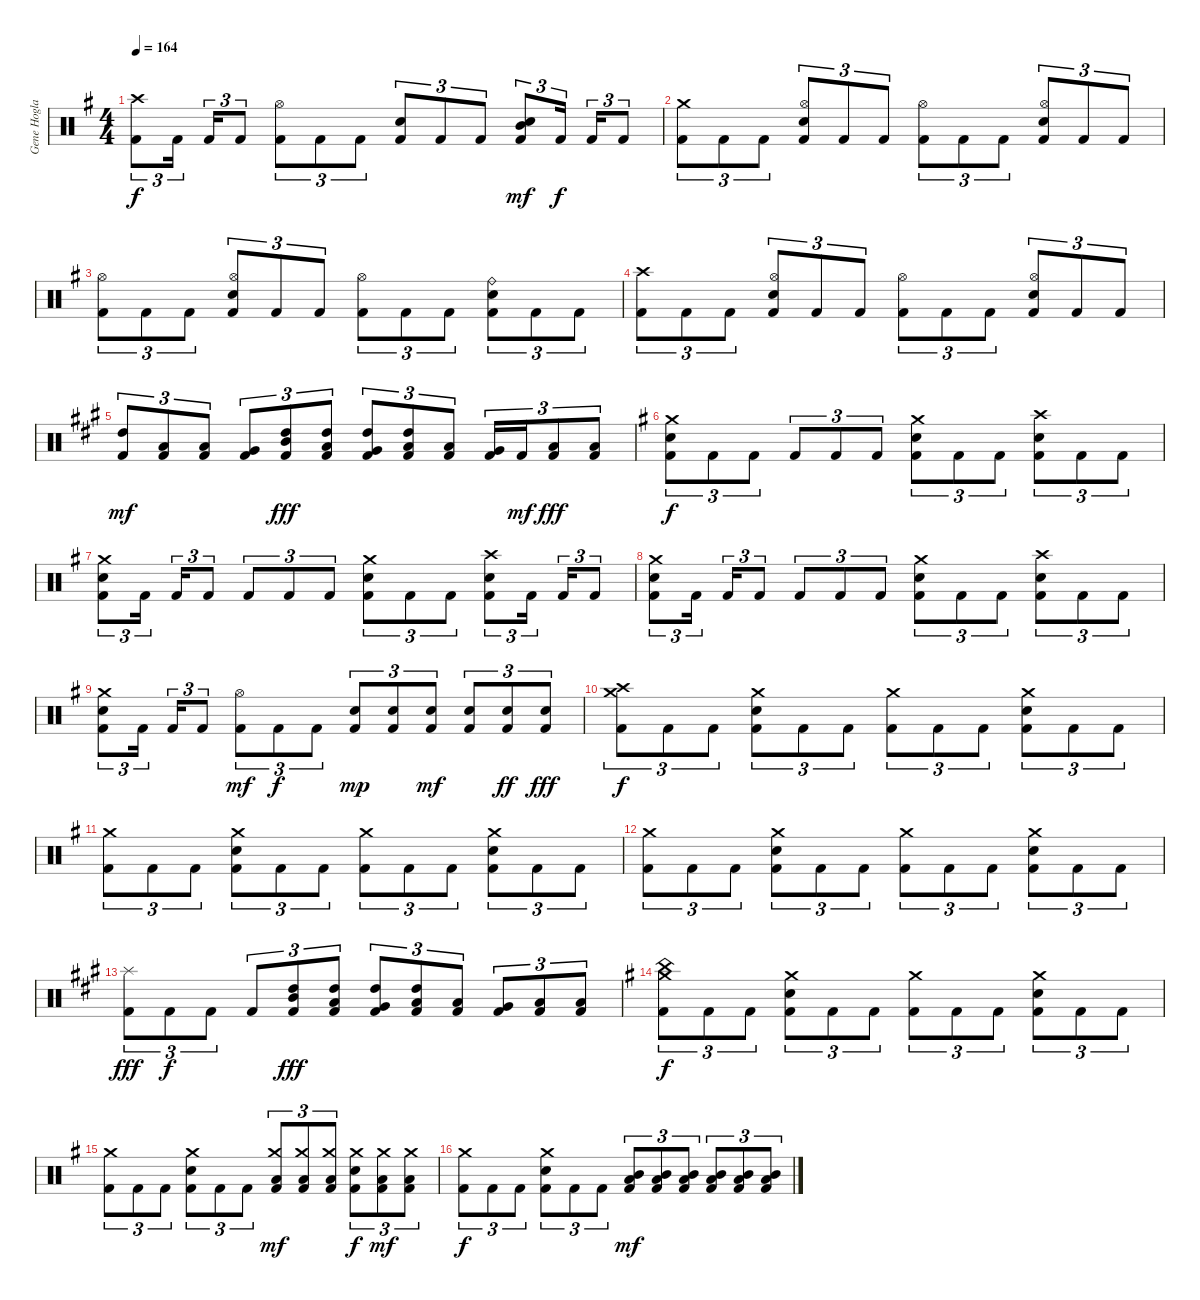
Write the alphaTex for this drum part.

\track ("Gene Hoglan" "Gene Hogla") {instrument percussion}
\staff {score}
\articulation defaults
\ts (4 4)
\tempo 164
\clef neutral
\ks g
("Crash high (hit)" "Kick (hit) 2").8{tu (3 2) dy f} "Kick (hit) 2".16{tu (3 2) beam splitsecondary} "Kick (hit) 2".16{tu (3 2)} "Kick (hit) 2".8{tu (3 2)} ("Hi-Hat (open)" "Kick (hit) 2").8{tu (3 2)} "Kick (hit) 2".8{tu (3 2)} "Kick (hit) 2".8{tu (3 2)} ("Electric Snare (hit)" "Kick (hit) 2").8{tu (3 2)} "Kick (hit) 2".8{tu (3 2)} "Kick (hit) 2".8{tu (3 2)} ("Electric Snare (hit)" "Mid Tom (hit)" "Kick (hit) 2").8{tu (3 2) dy mf} "Kick (hit) 2".16{tu (3 2) dy f beam splitsecondary} "Kick (hit) 2".16{tu (3 2)} "Kick (hit) 2".8{tu (3 2)} |
("Crash medium (hit)" "Kick (hit) 2").8{tu (3 2)} "Kick (hit) 2".8{tu (3 2)} "Kick (hit) 2".8{tu (3 2)} ("Hi-Hat (open)" "Electric Snare (hit)" "Kick (hit) 2").8{tu (3 2)} "Kick (hit) 2".8{tu (3 2)} "Kick (hit) 2".8{tu (3 2)} ("Hi-Hat (open)" "Kick (hit) 2").8{tu (3 2)} "Kick (hit) 2".8{tu (3 2)} "Kick (hit) 2".8{tu (3 2)} ("Hi-Hat (open)" "Electric Snare (hit)" "Kick (hit) 2").8{tu (3 2)} "Kick (hit) 2".8{tu (3 2)} "Kick (hit) 2".8{tu (3 2)} |
("Hi-Hat (open)" "Kick (hit) 2").8{tu (3 2)} "Kick (hit) 2".8{tu (3 2)} "Kick (hit) 2".8{tu (3 2)} ("Hi-Hat (open)" "Electric Snare (hit)" "Kick (hit) 2").8{tu (3 2)} "Kick (hit) 2".8{tu (3 2)} "Kick (hit) 2".8{tu (3 2)} ("Hi-Hat (open)" "Kick (hit) 2").8{tu (3 2)} "Kick (hit) 2".8{tu (3 2)} "Kick (hit) 2".8{tu (3 2)} ("Ride (bell)" "Electric Snare (hit)" "Kick (hit) 2").8{tu (3 2)} "Kick (hit) 2".8{tu (3 2)} "Kick (hit) 2".8{tu (3 2)} |
("Crash high (hit)" "Kick (hit) 2").8{tu (3 2)} "Kick (hit) 2".8{tu (3 2)} "Kick (hit) 2".8{tu (3 2)} ("Hi-Hat (open)" "Electric Snare (hit)" "Kick (hit) 2").8{tu (3 2)} "Kick (hit) 2".8{tu (3 2)} "Kick (hit) 2".8{tu (3 2)} ("Hi-Hat (open)" "Kick (hit) 2").8{tu (3 2)} "Kick (hit) 2".8{tu (3 2)} "Kick (hit) 2".8{tu (3 2)} ("Hi-Hat (open)" "Electric Snare (hit)" "Kick (hit) 2").8{tu (3 2)} "Kick (hit) 2".8{tu (3 2)} "Kick (hit) 2".8{tu (3 2)} |
\ks a
("High Tom (hit)" "Kick (hit) 2").8{tu (3 2) dy mf} ("Low Tom (hit)" "Kick (hit) 2").8{tu (3 2)} ("Low Floor Tom (hit)" "Kick (hit) 2").8{tu (3 2)} ("Very Low Tom (hit)" "Kick (hit) 2").8{tu (3 2)} ("High Tom (hit)" "Mid Tom (hit)" "Kick (hit) 2").8{tu (3 2) dy fff} ("High Tom (hit)" "Low Tom (hit)" "Kick (hit) 2").8{tu (3 2)} ("High Tom (hit)" "Very Low Tom (hit)" "Kick (hit) 2").8{tu (3 2)} ("High Tom (hit)" "Low Tom (hit)" "Kick (hit) 2").8{tu (3 2)} ("Low Tom (hit)" "Kick (hit) 2").8{tu (3 2)} ("Very Low Tom (hit)" "Kick (hit) 2").16{tu (3 2)} "Kick (hit) 2".16{tu (3 2) dy mf} ("Low Floor Tom (hit)" "Kick (hit) 2").8{tu (3 2) dy fff} ("Low Floor Tom (hit)" "Kick (hit) 2").8{tu (3 2)} |
\ks g
("Crash medium (hit)" "Electric Snare (hit)" "Kick (hit) 2").8{tu (3 2) dy f} "Kick (hit) 2".8{tu (3 2)} "Kick (hit) 2".8{tu (3 2)} "Kick (hit) 2".8{tu (3 2)} "Kick (hit) 2".8{tu (3 2)} "Kick (hit) 2".8{tu (3 2)} ("Crash medium (hit)" "Electric Snare (hit)" "Kick (hit) 2").8{tu (3 2)} "Kick (hit) 2".8{tu (3 2)} "Kick (hit) 2".8{tu (3 2)} ("Crash high (hit)" "Electric Snare (hit)" "Kick (hit) 2").8{tu (3 2)} "Kick (hit) 2".8{tu (3 2)} "Kick (hit) 2".8{tu (3 2)} |
("Crash medium (hit)" "Electric Snare (hit)" "Kick (hit) 2").8{tu (3 2)} "Kick (hit) 2".16{tu (3 2) beam splitsecondary} "Kick (hit) 2".16{tu (3 2)} "Kick (hit) 2".8{tu (3 2)} "Kick (hit) 2".8{tu (3 2)} "Kick (hit) 2".8{tu (3 2)} "Kick (hit) 2".8{tu (3 2)} ("Crash medium (hit)" "Electric Snare (hit)" "Kick (hit) 2").8{tu (3 2)} "Kick (hit) 2".8{tu (3 2)} "Kick (hit) 2".8{tu (3 2)} ("Crash high (hit)" "Electric Snare (hit)" "Kick (hit) 2").8{tu (3 2)} "Kick (hit) 2".16{tu (3 2) beam splitsecondary} "Kick (hit) 2".16{tu (3 2)} "Kick (hit) 2".8{tu (3 2)} |
("Crash medium (hit)" "Electric Snare (hit)" "Kick (hit) 2").8{tu (3 2)} "Kick (hit) 2".16{tu (3 2) beam splitsecondary} "Kick (hit) 2".16{tu (3 2)} "Kick (hit) 2".8{tu (3 2)} "Kick (hit) 2".8{tu (3 2)} "Kick (hit) 2".8{tu (3 2)} "Kick (hit) 2".8{tu (3 2)} ("Crash medium (hit)" "Electric Snare (hit)" "Kick (hit) 2").8{tu (3 2)} "Kick (hit) 2".8{tu (3 2)} "Kick (hit) 2".8{tu (3 2)} ("Crash high (hit)" "Electric Snare (hit)" "Kick (hit) 2").8{tu (3 2)} "Kick (hit) 2".8{tu (3 2)} "Kick (hit) 2".8{tu (3 2)} |
("Crash medium (hit)" "Electric Snare (hit)" "Kick (hit) 2").8{tu (3 2)} "Kick (hit) 2".16{tu (3 2) beam splitsecondary} "Kick (hit) 2".16{tu (3 2)} "Kick (hit) 2".8{tu (3 2)} ("Hi-Hat (open)" "Kick (hit) 2").8{tu (3 2) dy mf} "Kick (hit) 2".8{tu (3 2) dy f} "Kick (hit) 2".8{tu (3 2)} ("Electric Snare (hit)" "Kick (hit) 2").8{tu (3 2) dy mp} ("Electric Snare (hit)" "Kick (hit) 2").8{tu (3 2)} ("Electric Snare (hit)" "Kick (hit) 2").8{tu (3 2) dy mf} ("Electric Snare (hit)" "Kick (hit) 2").8{tu (3 2)} ("Electric Snare (hit)" "Kick (hit) 2").8{tu (3 2) dy ff} ("Electric Snare (hit)" "Kick (hit) 2").8{tu (3 2) dy fff} |
("Crash medium (hit)" "Crash high (hit)" "Kick (hit) 2").8{tu (3 2) dy f} "Kick (hit) 2".8{tu (3 2)} "Kick (hit) 2".8{tu (3 2)} ("Crash medium (hit)" "Electric Snare (hit)" "Kick (hit) 2").8{tu (3 2)} "Kick (hit) 2".8{tu (3 2)} "Kick (hit) 2".8{tu (3 2)} ("Crash medium (hit)" "Kick (hit) 2").8{tu (3 2)} "Kick (hit) 2".8{tu (3 2)} "Kick (hit) 2".8{tu (3 2)} ("Crash medium (hit)" "Electric Snare (hit)" "Kick (hit) 2").8{tu (3 2)} "Kick (hit) 2".8{tu (3 2)} "Kick (hit) 2".8{tu (3 2)} |
("Crash medium (hit)" "Kick (hit) 2").8{tu (3 2)} "Kick (hit) 2".8{tu (3 2)} "Kick (hit) 2".8{tu (3 2)} ("Crash medium (hit)" "Electric Snare (hit)" "Kick (hit) 2").8{tu (3 2)} "Kick (hit) 2".8{tu (3 2)} "Kick (hit) 2".8{tu (3 2)} ("Crash medium (hit)" "Kick (hit) 2").8{tu (3 2)} "Kick (hit) 2".8{tu (3 2)} "Kick (hit) 2".8{tu (3 2)} ("Crash medium (hit)" "Electric Snare (hit)" "Kick (hit) 2").8{tu (3 2)} "Kick (hit) 2".8{tu (3 2)} "Kick (hit) 2".8{tu (3 2)} |
("Crash medium (hit)" "Kick (hit) 2").8{tu (3 2)} "Kick (hit) 2".8{tu (3 2)} "Kick (hit) 2".8{tu (3 2)} ("Crash medium (hit)" "Electric Snare (hit)" "Kick (hit) 2").8{tu (3 2)} "Kick (hit) 2".8{tu (3 2)} "Kick (hit) 2".8{tu (3 2)} ("Crash medium (hit)" "Kick (hit) 2").8{tu (3 2)} "Kick (hit) 2".8{tu (3 2)} "Kick (hit) 2".8{tu (3 2)} ("Crash medium (hit)" "Electric Snare (hit)" "Kick (hit) 2").8{tu (3 2)} "Kick (hit) 2".8{tu (3 2)} "Kick (hit) 2".8{tu (3 2)} |
\ks a
("Splash (hit)" "Kick (hit) 2").8{tu (3 2) dy fff} "Kick (hit) 2".8{tu (3 2) dy f} "Kick (hit) 2".8{tu (3 2)} "Kick (hit) 2".8{tu (3 2)} ("High Tom (hit)" "Mid Tom (hit)" "Kick (hit) 2").8{tu (3 2) dy fff} ("High Tom (hit)" "Low Tom (hit)" "Kick (hit) 2").8{tu (3 2)} ("High Tom (hit)" "Very Low Tom (hit)" "Kick (hit) 2").8{tu (3 2)} ("High Tom (hit)" "Low Tom (hit)" "Kick (hit) 2").8{tu (3 2)} ("Low Tom (hit)" "Kick (hit) 2").8{tu (3 2)} ("Very Low Tom (hit)" "Kick (hit) 2").8{tu (3 2)} ("Low Floor Tom (hit)" "Kick (hit) 2").8{tu (3 2)} ("Low Floor Tom (hit)" "Kick (hit) 2").8{tu (3 2)} |
\ks g
("Crash medium (hit)" "China (hit)" "Kick (hit) 2").8{tu (3 2) dy f} "Kick (hit) 2".8{tu (3 2)} "Kick (hit) 2".8{tu (3 2)} ("Crash medium (hit)" "Electric Snare (hit)" "Kick (hit) 2").8{tu (3 2)} "Kick (hit) 2".8{tu (3 2)} "Kick (hit) 2".8{tu (3 2)} ("Crash medium (hit)" "Kick (hit) 2").8{tu (3 2)} "Kick (hit) 2".8{tu (3 2)} "Kick (hit) 2".8{tu (3 2)} ("Crash medium (hit)" "Electric Snare (hit)" "Kick (hit) 2").8{tu (3 2)} "Kick (hit) 2".8{tu (3 2)} "Kick (hit) 2".8{tu (3 2)} |
("Crash medium (hit)" "Kick (hit) 2").8{tu (3 2)} "Kick (hit) 2".8{tu (3 2)} "Kick (hit) 2".8{tu (3 2)} ("Crash medium (hit)" "Electric Snare (hit)" "Kick (hit) 2").8{tu (3 2)} "Kick (hit) 2".8{tu (3 2)} "Kick (hit) 2".8{tu (3 2)} ("Crash medium (hit)" "Low Tom (hit)" "Kick (hit) 2").8{tu (3 2) dy mf} ("Crash medium (hit)" "Low Tom (hit)" "Kick (hit) 2").8{tu (3 2)} ("Crash medium (hit)" "Low Tom (hit)" "Kick (hit) 2").8{tu (3 2)} ("Crash medium (hit)" "Electric Snare (hit)" "Kick (hit) 2").8{tu (3 2) dy f} ("Crash medium (hit)" "Low Tom (hit)" "Kick (hit) 2").8{tu (3 2) dy mf} ("Crash medium (hit)" "Low Tom (hit)" "Kick (hit) 2").8{tu (3 2)} |
("Crash medium (hit)" "Kick (hit) 2").8{tu (3 2) dy f} "Kick (hit) 2".8{tu (3 2)} "Kick (hit) 2".8{tu (3 2)} ("Crash medium (hit)" "Electric Snare (hit)" "Kick (hit) 2").8{tu (3 2)} "Kick (hit) 2".8{tu (3 2)} "Kick (hit) 2".8{tu (3 2)} ("Low Tom (hit)" "Mid Tom (hit)" "Kick (hit) 2").8{tu (3 2) dy mf} ("Low Tom (hit)" "Mid Tom (hit)" "Kick (hit) 2").8{tu (3 2)} ("Low Tom (hit)" "Mid Tom (hit)" "Kick (hit) 2").8{tu (3 2)} ("Low Tom (hit)" "Mid Tom (hit)" "Kick (hit) 2").8{tu (3 2)} ("Low Tom (hit)" "Mid Tom (hit)" "Kick (hit) 2").8{tu (3 2)} ("Low Tom (hit)" "Mid Tom (hit)" "Kick (hit) 2").8{tu (3 2)}
